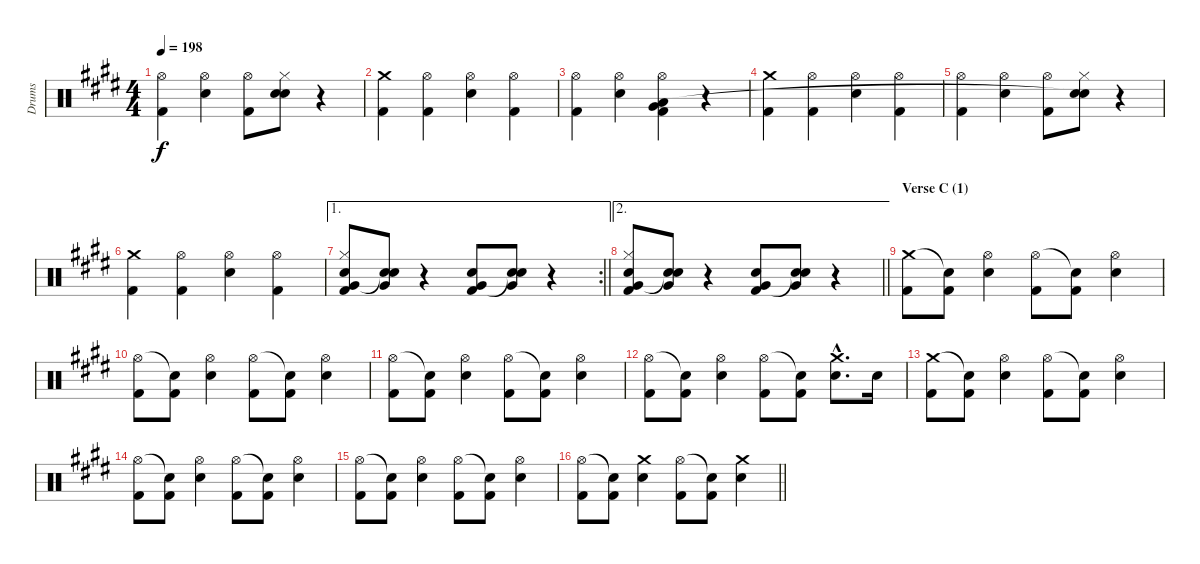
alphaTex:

\track ("Drums" "Drums") {instrument percussion}
\staff {score}
\articulation defaults
\ts (4 4)
\tempo 198
\clef neutral
\ks c#minor
("Hi-Hat (open)" "Kick (hit) 2").4{dy f} ("Hi-Hat (open)" "Electric Snare (hit)").4 ("Hi-Hat (open)" "Kick (hit) 2").8 ("Hi-Hat (closed)" "Electric Snare (hit)" "Snare (hit)").8 r.4 |
("Crash medium (hit)" "Kick (hit) 2").4 ("Hi-Hat (open)" "Kick (hit) 2").4 ("Hi-Hat (open)" "Electric Snare (hit)").4 ("Hi-Hat (open)" "Kick (hit) 2").4 |
("Hi-Hat (open)" "Kick (hit) 2").4 ("Hi-Hat (open)" "Electric Snare (hit)").4 ("Hi-Hat (open)" "Very Low Tom (hit)" "Low Floor Tom (hit)" "Kick (hit) 2").4 r.4 |
("Crash medium (hit)" "Kick (hit) 2").4 ("Hi-Hat (open)" "Kick (hit) 2").4 ("Hi-Hat (open)" "Electric Snare (hit)").4 ("Hi-Hat (open)" "Kick (hit) 2").4 |
("Hi-Hat (open)" "Kick (hit) 2").4 ("Hi-Hat (open)" "Electric Snare (hit)").4 ("Hi-Hat (open)" "Kick (hit) 2").8 ("Hi-Hat (closed)" "Electric Snare (hit)" "Snare (hit)"{t}).8 r.4 |
("Crash medium (hit)" "Kick (hit) 2").4 ("Hi-Hat (open)" "Kick (hit) 2").4 ("Hi-Hat (open)" "Electric Snare (hit)").4 ("Hi-Hat (open)" "Kick (hit) 2").4 |
\ae 1
\rc 2
\barLineRight lightlight
("Hi-Hat (closed)" "Electric Snare (hit)" "Very Low Tom (hit)" "Kick (hit) 2").8 ("Electric Snare (hit)" "Very Low Tom (hit)" "Snare (hit)"{t}).8 r.4 ("Electric Snare (hit)" "Very Low Tom (hit)" "Kick (hit) 2").8 ("Electric Snare (hit)" "Very Low Tom (hit)" "Snare (hit)"{t}).8 r.4 |
\ae 2
\barLineRight lightlight
("Hi-Hat (closed)" "Electric Snare (hit)" "Very Low Tom (hit)" "Kick (hit) 2").8 ("Electric Snare (hit)" "Very Low Tom (hit)" "Snare (hit)"{t}).8 r.4 ("Electric Snare (hit)" "Very Low Tom (hit)" "Kick (hit) 2").8 ("Electric Snare (hit)" "Very Low Tom (hit)" "Snare (hit)"{t}).8 r.4 |
\section ("" "Verse C (1)")
("Crash medium (hit)" "Kick (hit) 2").8 ("Snare (hit)"{t} "Kick (hit) 2").8 ("Hi-Hat (open)" "Electric Snare (hit)").4 ("Hi-Hat (open)" "Kick (hit) 2").8 ("Snare (hit)"{t} "Kick (hit) 2").8 ("Hi-Hat (open)" "Electric Snare (hit)").4 |
("Hi-Hat (open)" "Kick (hit) 2").8 ("Snare (hit)"{t} "Kick (hit) 2").8 ("Hi-Hat (open)" "Electric Snare (hit)").4 ("Hi-Hat (open)" "Kick (hit) 2").8 ("Snare (hit)"{t} "Kick (hit) 2").8 ("Hi-Hat (open)" "Electric Snare (hit)").4 |
("Hi-Hat (open)" "Kick (hit) 2").8 ("Snare (hit)"{t} "Kick (hit) 2").8 ("Hi-Hat (open)" "Electric Snare (hit)").4 ("Hi-Hat (open)" "Kick (hit) 2").8 ("Snare (hit)"{t} "Kick (hit) 2").8 ("Hi-Hat (open)" "Electric Snare (hit)").4 |
("Hi-Hat (open)" "Kick (hit) 2").8 ("Snare (hit)"{t} "Kick (hit) 2").8 ("Hi-Hat (open)" "Electric Snare (hit)").4 ("Hi-Hat (open)" "Kick (hit) 2").8 ("Snare (hit)"{t} "Kick (hit) 2").8 ("Crash medium (hit)"{hac} "Electric Snare (hit)"{hac}).8{d} "Electric Snare (hit)".16 |
("Crash medium (hit)" "Kick (hit) 2").8 ("Snare (hit)"{t} "Kick (hit) 2").8 ("Hi-Hat (open)" "Electric Snare (hit)").4 ("Hi-Hat (open)" "Kick (hit) 2").8 ("Snare (hit)"{t} "Kick (hit) 2").8 ("Hi-Hat (open)" "Electric Snare (hit)").4 |
("Hi-Hat (open)" "Kick (hit) 2").8 ("Snare (hit)"{t} "Kick (hit) 2").8 ("Hi-Hat (open)" "Electric Snare (hit)").4 ("Hi-Hat (open)" "Kick (hit) 2").8 ("Snare (hit)"{t} "Kick (hit) 2").8 ("Hi-Hat (open)" "Electric Snare (hit)").4 |
("Hi-Hat (open)" "Kick (hit) 2").8 ("Snare (hit)"{t} "Kick (hit) 2").8 ("Hi-Hat (open)" "Electric Snare (hit)").4 ("Hi-Hat (open)" "Kick (hit) 2").8 ("Snare (hit)"{t} "Kick (hit) 2").8 ("Hi-Hat (open)" "Electric Snare (hit)").4 |
\barLineRight lightlight
("Hi-Hat (open)" "Kick (hit) 2").8 ("Snare (hit)"{t} "Kick (hit) 2").8 ("Crash medium (hit)" "Electric Snare (hit)").4 ("Hi-Hat (open)" "Kick (hit) 2").8 ("Snare (hit)"{t} "Kick (hit) 2").8 ("Crash medium (hit)" "Electric Snare (hit)").4
